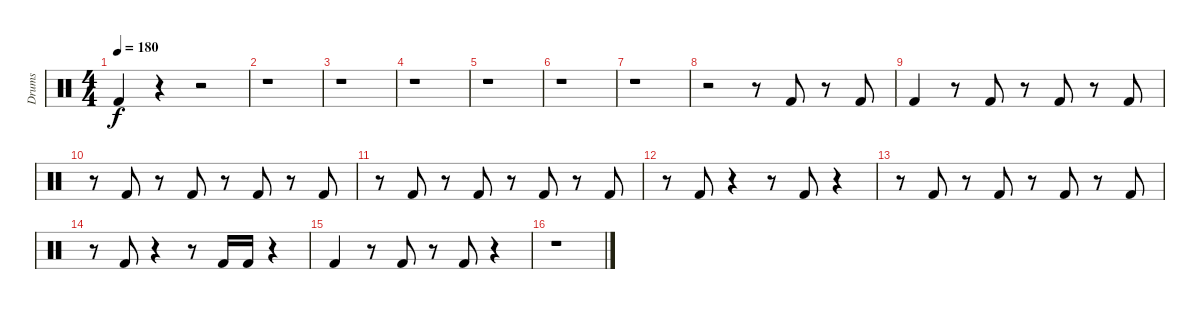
\track ("Drums" "Drums") {instrument percussion}
\staff {score}
\articulation defaults
\ts (4 4)
\tempo 180
\clef neutral
\ks c "Kick (hit) 2".4{dy f}
r.4 r.2 |
r.1 |
r.1 |
r.1 |
r.1 |
r.1 |
r.1 |
r.2 r.8 "Kick (hit) 2".8 r.8 "Kick (hit) 2".8 |
"Kick (hit) 2".4 r.8 "Kick (hit) 2".8 r.8 "Kick (hit) 2".8 r.8 "Kick (hit) 2".8 |
r.8 "Kick (hit) 2".8 r.8 "Kick (hit) 2".8 r.8 "Kick (hit) 2".8 r.8 "Kick (hit) 2".8 |
r.8 "Kick (hit) 2".8 r.8 "Kick (hit) 2".8 r.8 "Kick (hit) 2".8 r.8 "Kick (hit) 2".8 |
r.8 "Kick (hit) 2".8 r.4 r.8 "Kick (hit) 2".8 r.4 |
r.8 "Kick (hit) 2".8 r.8 "Kick (hit) 2".8 r.8 "Kick (hit) 2".8 r.8 "Kick (hit) 2".8 |
r.8 "Kick (hit) 2".8 r.4 r.8 "Kick (hit) 2".16 "Kick (hit) 2".16 r.4 |
"Kick (hit) 2".4 r.8 "Kick (hit) 2".8 r.8 "Kick (hit) 2".8 r.4 |
r.1
